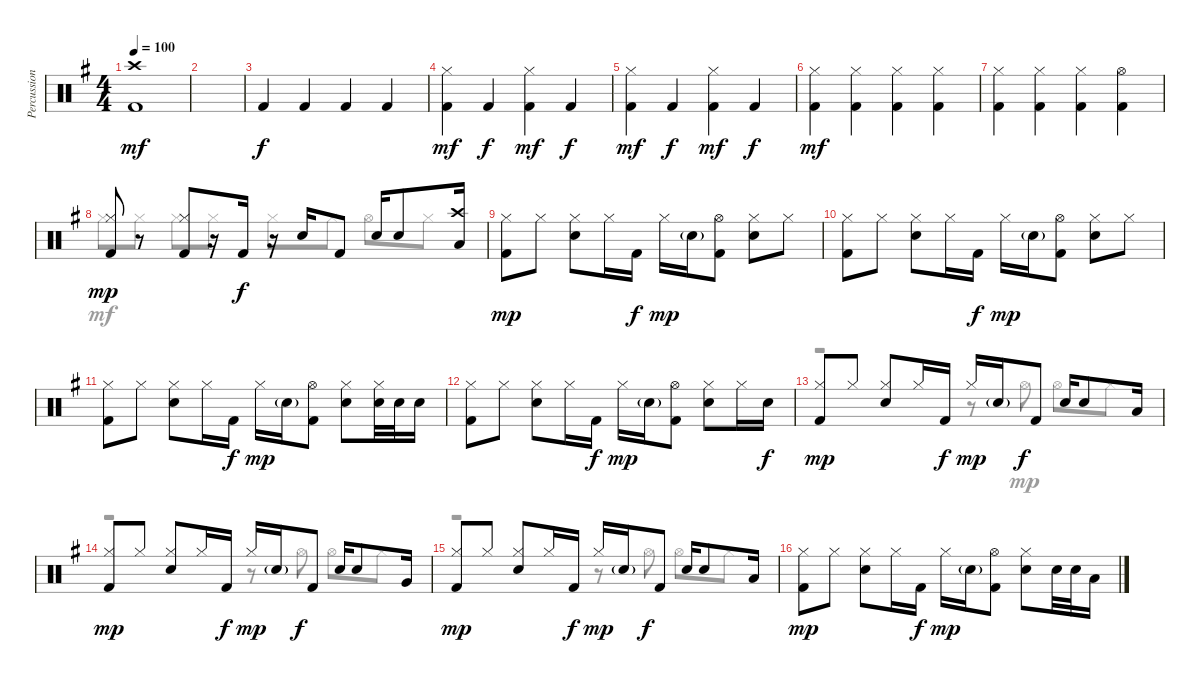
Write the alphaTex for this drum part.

\track ("Percussion" "Percussion") {instrument percussion}
\staff {score}
\articulation defaults
\voice
\ts (4 4)
\tempo 100
\clef neutral
\ks g
("Kick (hit) 2" "Crash high (hit)").1{dy mf} |
|
"Kick (hit) 2".4{dy f} "Kick (hit) 2".4 "Kick (hit) 2".4 "Kick (hit) 2".4 |
("Hi-Hat (closed)" "Kick (hit) 2").4{dy mf} "Kick (hit) 2".4{dy f} ("Hi-Hat (closed)" "Kick (hit) 2").4{dy mf} "Kick (hit) 2".4{dy f} |
("Hi-Hat (closed)" "Kick (hit) 2").4{dy mf} "Kick (hit) 2".4{dy f} ("Hi-Hat (closed)" "Kick (hit) 2").4{dy mf} "Kick (hit) 2".4{dy f} |
("Hi-Hat (closed)" "Kick (hit) 2").4{dy mf} ("Hi-Hat (closed)" "Kick (hit) 2").4 ("Hi-Hat (closed)" "Kick (hit) 2").4 ("Hi-Hat (closed)" "Kick (hit) 2").4 |
("Hi-Hat (closed)" "Kick (hit) 2").4 ("Hi-Hat (closed)" "Kick (hit) 2").4 ("Hi-Hat (closed)" "Kick (hit) 2").4 ("Hi-Hat (open)" "Kick (hit) 2").4 |
("Hi-Hat (closed)" "Kick (hit) 2").8{dy mp} r.8 ("Hi-Hat (closed)" "Kick (hit) 2").8 r.16 "Kick (hit) 2".16{dy f} r.16 "Electric Snare (hit)".16 "Kick (hit) 2".8 "Electric Snare (hit)".16 "Electric Snare (hit)".8 ("Crash high (hit)" "Low Floor Tom (hit)").16 |
("Hi-Hat (closed)" "Kick (hit) 2").8{dy mp} "Hi-Hat (closed)".8 ("Hi-Hat (closed)" "Electric Snare (hit)").8 "Hi-Hat (closed)".16 "Kick (hit) 2".16{dy f} "Hi-Hat (closed)".16{dy mp} "Electric Snare (hit)"{g}.16 ("Hi-Hat (open)" "Kick (hit) 2").8 ("Hi-Hat (closed)" "Electric Snare (hit)").8 "Hi-Hat (closed)".8 |
("Hi-Hat (closed)" "Kick (hit) 2").8 "Hi-Hat (closed)".8 ("Hi-Hat (closed)" "Electric Snare (hit)").8 "Hi-Hat (closed)".16 "Kick (hit) 2".16{dy f} "Hi-Hat (closed)".16{dy mp} "Electric Snare (hit)"{g}.16 ("Hi-Hat (open)" "Kick (hit) 2").8 ("Hi-Hat (closed)" "Electric Snare (hit)").8 "Hi-Hat (closed)".8 |
("Hi-Hat (closed)" "Kick (hit) 2").8 "Hi-Hat (closed)".8 ("Hi-Hat (closed)" "Electric Snare (hit)").8 "Hi-Hat (closed)".16 "Kick (hit) 2".16{dy f} "Hi-Hat (closed)".16{dy mp} "Electric Snare (hit)"{g}.16 ("Hi-Hat (open)" "Kick (hit) 2").8 ("Hi-Hat (closed)" "Electric Snare (hit)").8 ("Hi-Hat (closed)" "Electric Snare (hit)").32 "Electric Snare (hit)".32 "Electric Snare (hit)".16 |
("Hi-Hat (closed)" "Kick (hit) 2").8 "Hi-Hat (closed)".8 ("Hi-Hat (closed)" "Electric Snare (hit)").8 "Hi-Hat (closed)".16 "Kick (hit) 2".16{dy f} "Hi-Hat (closed)".16{dy mp} "Electric Snare (hit)"{g}.16 ("Hi-Hat (open)" "Kick (hit) 2").8 ("Hi-Hat (closed)" "Electric Snare (hit)").8 "Hi-Hat (closed)".16 "Electric Snare (hit)".16{dy f} |
("Hi-Hat (closed)" "Kick (hit) 2").8{dy mp} "Hi-Hat (closed)".8 ("Hi-Hat (closed)" "Electric Snare (hit)").8 "Hi-Hat (closed)".16 "Kick (hit) 2".16{dy f} "Hi-Hat (closed)".16{dy mp} "Electric Snare (hit)"{g}.16 "Kick (hit) 2".8{dy f} "Electric Snare (hit)".16 "Electric Snare (hit)".8 "Low Tom (hit)".16 |
("Hi-Hat (closed)" "Kick (hit) 2").8{dy mp} "Hi-Hat (closed)".8 ("Hi-Hat (closed)" "Electric Snare (hit)").8 "Hi-Hat (closed)".16 "Kick (hit) 2".16{dy f} "Hi-Hat (closed)".16{dy mp} "Electric Snare (hit)"{g}.16 "Kick (hit) 2".8{dy f} "Electric Snare (hit)".16 "Electric Snare (hit)".8 "Very Low Tom (hit)".16 |
("Hi-Hat (closed)" "Kick (hit) 2").8{dy mp} "Hi-Hat (closed)".8 ("Hi-Hat (closed)" "Electric Snare (hit)").8 "Hi-Hat (closed)".16 "Kick (hit) 2".16{dy f} "Hi-Hat (closed)".16{dy mp} "Electric Snare (hit)"{g}.16 "Kick (hit) 2".8{dy f} "Electric Snare (hit)".16 "Electric Snare (hit)".8 "Low Floor Tom (hit)".16 |
("Hi-Hat (closed)" "Kick (hit) 2").8{dy mp} "Hi-Hat (closed)".8 ("Hi-Hat (closed)" "Electric Snare (hit)").8 "Hi-Hat (closed)".16 "Kick (hit) 2".16{dy f} "Hi-Hat (closed)".16{dy mp} "Electric Snare (hit)"{g}.16 ("Hi-Hat (open)" "Kick (hit) 2").8 ("Hi-Hat (closed)" "Electric Snare (hit)").8 "Electric Snare (hit)".32 "Electric Snare (hit)".32 "Low Floor Tom (hit)".16
\voice
\clef neutral
\ottava regular
\simile none
\ks g
|
|
|
|
|
|
|
"Hi-Hat (closed)".8{dy mf} "Hi-Hat (closed)".8 "Hi-Hat (closed)".8 "Hi-Hat (closed)".8 "Hi-Hat (closed)".8 "Hi-Hat (closed)".8 "Hi-Hat (open)".8 "Hi-Hat (closed)".8 |
|
|
|
|
r.2 r.8 "Hi-Hat (open)".8{dy mp} "Hi-Hat (open)".8 "Hi-Hat (closed)".8 |
r.2 r.8 "Hi-Hat (open)".8 "Hi-Hat (open)".8 "Hi-Hat (closed)".8 |
r.2 r.8 "Hi-Hat (open)".8 "Hi-Hat (open)".8 "Hi-Hat (closed)".8 |
